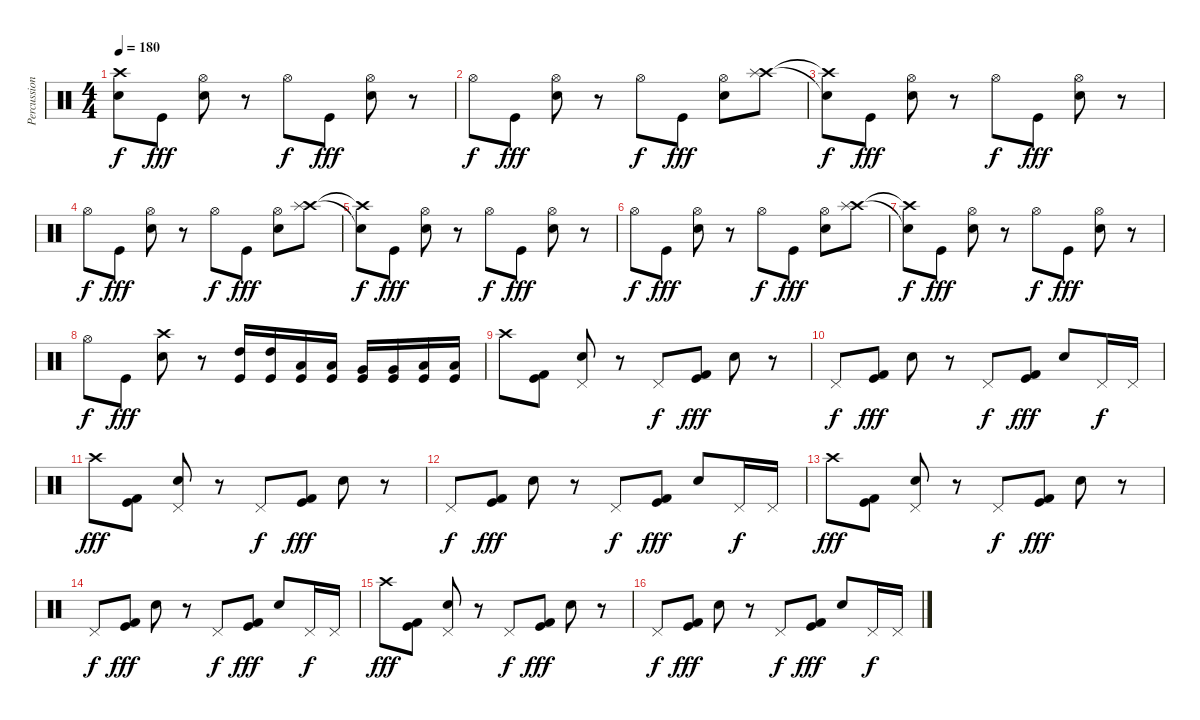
\track ("Percussion" "Percussion") {instrument percussion}
\staff
\articulation defaults
\ts (4 4)
\tempo 180
\clef neutral
\ks c
("Crash high (hit)"{t} "Snare (hit)"{t}).8{dy f} "Kick (hit)".8{dy fff} ("Hi-Hat (open)" "Electric Snare (hit)").8 r.8 "Hi-Hat (open)".8{dy f} "Kick (hit)".8{dy fff} ("Hi-Hat (open)" "Electric Snare (hit)").8 r.8 |
"Hi-Hat (open)".8{dy f} "Kick (hit)".8{dy fff} ("Hi-Hat (open)" "Electric Snare (hit)").8 r.8 "Hi-Hat (open)".8{dy f} "Kick (hit)".8{dy fff} ("Hi-Hat (open)" "Electric Snare (hit)").8 ("Crash high (hit)" "Splash (hit)").8 |
("Crash high (hit)"{t} "Snare (hit)"{t}).8{dy f} "Kick (hit)".8{dy fff} ("Hi-Hat (open)" "Electric Snare (hit)").8 r.8 "Hi-Hat (open)".8{dy f} "Kick (hit)".8{dy fff} ("Hi-Hat (open)" "Electric Snare (hit)").8 r.8 |
"Hi-Hat (open)".8{dy f} "Kick (hit)".8{dy fff} ("Hi-Hat (open)" "Electric Snare (hit)").8 r.8 "Hi-Hat (open)".8{dy f} "Kick (hit)".8{dy fff} ("Hi-Hat (open)" "Electric Snare (hit)").8 ("Crash high (hit)" "Splash (hit)").8 |
("Crash high (hit)"{t} "Snare (hit)"{t}).8{dy f} "Kick (hit)".8{dy fff} ("Hi-Hat (open)" "Electric Snare (hit)").8 r.8 "Hi-Hat (open)".8{dy f} "Kick (hit)".8{dy fff} ("Hi-Hat (open)" "Electric Snare (hit)").8 r.8 |
"Hi-Hat (open)".8{dy f} "Kick (hit)".8{dy fff} ("Hi-Hat (open)" "Electric Snare (hit)").8 r.8 "Hi-Hat (open)".8{dy f} "Kick (hit)".8{dy fff} ("Hi-Hat (open)" "Electric Snare (hit)").8 ("Crash high (hit)" "Splash (hit)").8 |
("Crash high (hit)"{t} "Snare (hit)"{t}).8{dy f} "Kick (hit)".8{dy fff} ("Hi-Hat (open)" "Electric Snare (hit)").8 r.8 "Hi-Hat (open)".8{dy f} "Kick (hit)".8{dy fff} ("Hi-Hat (open)" "Electric Snare (hit)").8 r.8 |
"Hi-Hat (open)".8{dy f} "Kick (hit)".8{dy fff} ("Crash high (hit)" "Electric Snare (hit)").8 r.8 ("High Tom (hit)" "Kick (hit)").16 ("High Tom (hit)" "Kick (hit)").16 ("Low Tom (hit)" "Kick (hit)").16 ("Low Tom (hit)" "Kick (hit)").16 ("Very Low Tom (hit)" "Kick (hit)").16 ("Very Low Tom (hit)" "Kick (hit)").16 ("Low Floor Tom (hit)" "Kick (hit)").16 ("Low Floor Tom (hit)" "Kick (hit)").16 |
"Crash high (hit)".8 ("Kick (hit) 2" "Kick (hit)").8 ("Pedal Hi-Hat (hit)" "Electric Snare (hit)").8 r.8 "Pedal Hi-Hat (hit)".8{dy f} ("Kick (hit) 2" "Kick (hit)").8{dy fff} "Electric Snare (hit)".8 r.8 |
"Pedal Hi-Hat (hit)".8{dy f} ("Kick (hit) 2" "Kick (hit)").8{dy fff} "Electric Snare (hit)".8 r.8 "Pedal Hi-Hat (hit)".8{dy f} ("Kick (hit) 2" "Kick (hit)").8{dy fff} "Electric Snare (hit)".8 "Pedal Hi-Hat (hit)".16{dy f} "Pedal Hi-Hat (hit)".16 |
"Crash high (hit)".8{dy fff} ("Kick (hit) 2" "Kick (hit)").8 ("Pedal Hi-Hat (hit)" "Electric Snare (hit)").8 r.8 "Pedal Hi-Hat (hit)".8{dy f} ("Kick (hit) 2" "Kick (hit)").8{dy fff} "Electric Snare (hit)".8 r.8 |
"Pedal Hi-Hat (hit)".8{dy f} ("Kick (hit) 2" "Kick (hit)").8{dy fff} "Electric Snare (hit)".8 r.8 "Pedal Hi-Hat (hit)".8{dy f} ("Kick (hit) 2" "Kick (hit)").8{dy fff} "Electric Snare (hit)".8 "Pedal Hi-Hat (hit)".16{dy f} "Pedal Hi-Hat (hit)".16 |
"Crash high (hit)".8{dy fff} ("Kick (hit) 2" "Kick (hit)").8 ("Pedal Hi-Hat (hit)" "Electric Snare (hit)").8 r.8 "Pedal Hi-Hat (hit)".8{dy f} ("Kick (hit) 2" "Kick (hit)").8{dy fff} "Electric Snare (hit)".8 r.8 |
"Pedal Hi-Hat (hit)".8{dy f} ("Kick (hit) 2" "Kick (hit)").8{dy fff} "Electric Snare (hit)".8 r.8 "Pedal Hi-Hat (hit)".8{dy f} ("Kick (hit) 2" "Kick (hit)").8{dy fff} "Electric Snare (hit)".8 "Pedal Hi-Hat (hit)".16{dy f} "Pedal Hi-Hat (hit)".16 |
"Crash high (hit)".8{dy fff} ("Kick (hit) 2" "Kick (hit)").8 ("Pedal Hi-Hat (hit)" "Electric Snare (hit)").8 r.8 "Pedal Hi-Hat (hit)".8{dy f} ("Kick (hit) 2" "Kick (hit)").8{dy fff} "Electric Snare (hit)".8 r.8 |
"Pedal Hi-Hat (hit)".8{dy f} ("Kick (hit) 2" "Kick (hit)").8{dy fff} "Electric Snare (hit)".8 r.8 "Pedal Hi-Hat (hit)".8{dy f} ("Kick (hit) 2" "Kick (hit)").8{dy fff} "Electric Snare (hit)".8 "Pedal Hi-Hat (hit)".16{dy f} "Pedal Hi-Hat (hit)".16
